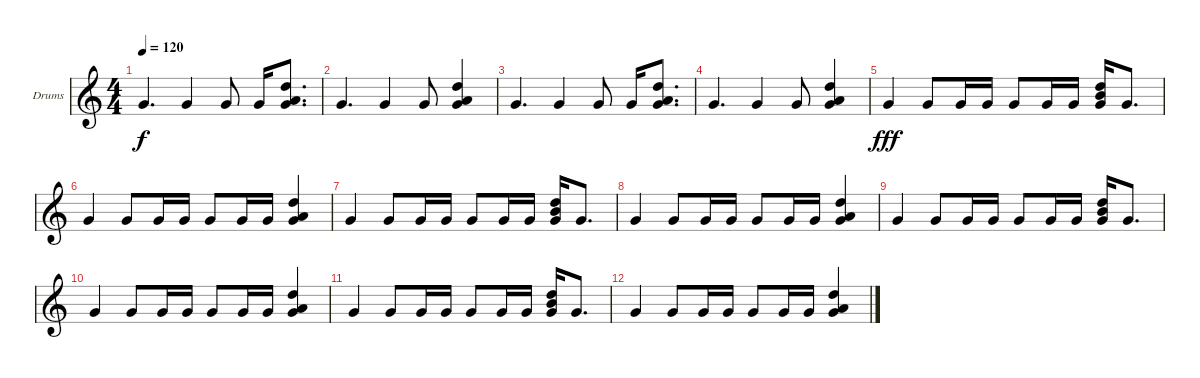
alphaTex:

\defaultSystemsLayout 4
\bracketExtendMode groupsimilarinstruments
\firstSystemTrackNameOrientation horizontal
\otherSystemsTrackNameOrientation horizontal
\track ("Drumkit" "Drums") {instrument percussion}
\staff {score}
\articulation defaults
\ts (4 4)
\tempo 120
\clef g2
\scale
0.333333
\ks c "Very Low Tom (hit)".4{d dy f} "Very Low Tom (hit)".4 "Very Low Tom (hit)".8 "Very Low Tom (hit)".16
("Very Low Tom (hit)" "High Tom (hit)" "Low Tom (hit)").8{d} |
\scale
0.333333 "Very Low Tom (hit)".4{d} "Very Low Tom (hit)".4 "Very Low Tom (hit)".8 ("Very Low Tom (hit)" "High Tom (hit)" "Low Tom (hit)").4 |
\scale
0.333333 "Very Low Tom (hit)".4{d} "Very Low Tom (hit)".4 "Very Low Tom (hit)".8 "Very Low Tom (hit)".16 ("Very Low Tom (hit)" "High Tom (hit)" "Low Tom (hit)").8{d} |
\scale
0.333333 "Very Low Tom (hit)".4{d} "Very Low Tom (hit)".4 "Very Low Tom (hit)".8 ("Very Low Tom (hit)" "High Tom (hit)" "Low Tom (hit)").4 |
\scale
0.333333 "Very Low Tom (hit)".4{dy fff} "Very Low Tom (hit)".8 "Very Low Tom (hit)".16 "Very Low Tom (hit)".16 "Very Low Tom (hit)".8 "Very Low Tom (hit)".16 "Very Low Tom (hit)".16 ("Very Low Tom (hit)" "High Tom (hit)" "Mid Tom (hit)").16 "Very Low Tom (hit)".8{d} |
\scale
0.333333 "Very Low Tom (hit)".4 "Very Low Tom (hit)".8 "Very Low Tom (hit)".16 "Very Low Tom (hit)".16 "Very Low Tom (hit)".8 "Very Low Tom (hit)".16 "Very Low Tom (hit)".16 ("Very Low Tom (hit)" "Low Tom (hit)" "High Tom (hit)").4 |
\scale
0.333333 "Very Low Tom (hit)".4 "Very Low Tom (hit)".8 "Very Low Tom (hit)".16 "Very Low Tom (hit)".16 "Very Low Tom (hit)".8 "Very Low Tom (hit)".16 "Very Low Tom (hit)".16 ("Very Low Tom (hit)" "High Tom (hit)" "Mid Tom (hit)").16 "Very Low Tom (hit)".8{d} |
\scale
0.333333 "Very Low Tom (hit)".4 "Very Low Tom (hit)".8 "Very Low Tom (hit)".16 "Very Low Tom (hit)".16 "Very Low Tom (hit)".8 "Very Low Tom (hit)".16 "Very Low Tom (hit)".16 ("Very Low Tom (hit)" "Low Tom (hit)" "High Tom (hit)").4 |
\scale
0.333333 "Very Low Tom (hit)".4 "Very Low Tom (hit)".8 "Very Low Tom (hit)".16 "Very Low Tom (hit)".16 "Very Low Tom (hit)".8 "Very Low Tom (hit)".16 "Very Low Tom (hit)".16 ("Very Low Tom (hit)" "High Tom (hit)" "Mid Tom (hit)").16 "Very Low Tom (hit)".8{d} |
"Very Low Tom (hit)".4 "Very Low Tom (hit)".8 "Very Low Tom (hit)".16 "Very Low Tom (hit)".16 "Very Low Tom (hit)".8 "Very Low Tom (hit)".16 "Very Low Tom (hit)".16 ("Very Low Tom (hit)" "Low Tom (hit)" "High Tom (hit)").4 |
\scale
0.333333 "Very Low Tom (hit)".4 "Very Low Tom (hit)".8 "Very Low Tom (hit)".16 "Very Low Tom (hit)".16 "Very Low Tom (hit)".8 "Very Low Tom (hit)".16 "Very Low Tom (hit)".16 ("Very Low Tom (hit)" "High Tom (hit)" "Mid Tom (hit)").16 "Very Low Tom (hit)".8{d} |
\scale
0.333333 "Very Low Tom (hit)".4 "Very Low Tom (hit)".8 "Very Low Tom (hit)".16 "Very Low Tom (hit)".16 "Very Low Tom (hit)".8 "Very Low Tom (hit)".16 "Very Low Tom (hit)".16 ("Very Low Tom (hit)" "Low Tom (hit)" "High Tom (hit)").4 |
\scale
0.333333 |
\scale
0.333333 |
\scale
0.333333 |
\scale
0.333333
